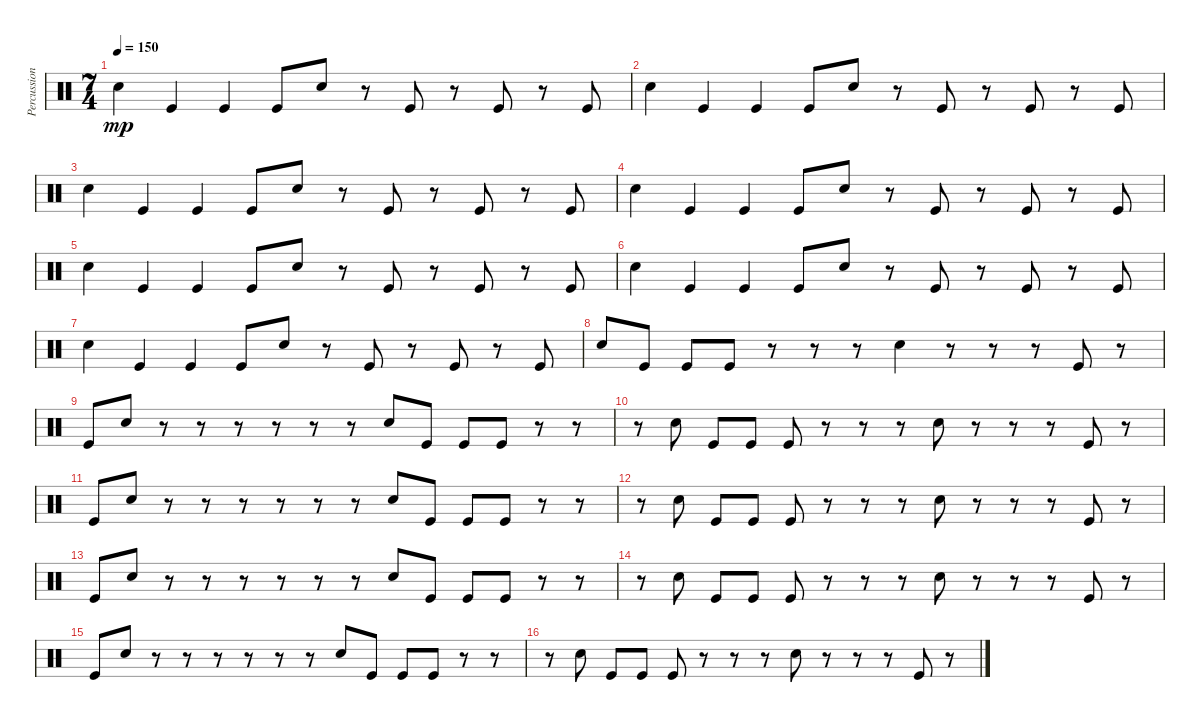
\track ("Percussion" "Percussion") {instrument percussion}
\staff {score}
\articulation defaults
\ts (7 4)
\tempo 150
\clef neutral
\ks c "Electric Snare (hit)".4{dy mp} "Kick (hit)".4 "Kick (hit)".4 "Kick (hit)".8 "Electric Snare (hit)".8
r.8 "Kick (hit)".8 r.8 "Kick (hit)".8 r.8 "Kick (hit)".8 |
"Electric Snare (hit)".4 "Kick (hit)".4 "Kick (hit)".4 "Kick (hit)".8 "Electric Snare (hit)".8 r.8 "Kick (hit)".8 r.8 "Kick (hit)".8 r.8 "Kick (hit)".8 |
"Electric Snare (hit)".4 "Kick (hit)".4 "Kick (hit)".4 "Kick (hit)".8 "Electric Snare (hit)".8 r.8 "Kick (hit)".8 r.8 "Kick (hit)".8 r.8 "Kick (hit)".8 |
"Electric Snare (hit)".4 "Kick (hit)".4 "Kick (hit)".4 "Kick (hit)".8 "Electric Snare (hit)".8 r.8 "Kick (hit)".8 r.8 "Kick (hit)".8 r.8 "Kick (hit)".8 |
"Electric Snare (hit)".4 "Kick (hit)".4 "Kick (hit)".4 "Kick (hit)".8 "Electric Snare (hit)".8 r.8 "Kick (hit)".8 r.8 "Kick (hit)".8 r.8 "Kick (hit)".8 |
"Electric Snare (hit)".4 "Kick (hit)".4 "Kick (hit)".4 "Kick (hit)".8 "Electric Snare (hit)".8 r.8 "Kick (hit)".8 r.8 "Kick (hit)".8 r.8 "Kick (hit)".8 |
"Electric Snare (hit)".4 "Kick (hit)".4 "Kick (hit)".4 "Kick (hit)".8 "Electric Snare (hit)".8 r.8 "Kick (hit)".8 r.8 "Kick (hit)".8 r.8 "Kick (hit)".8 |
"Electric Snare (hit)".8 "Kick (hit)".8 "Kick (hit)".8 "Kick (hit)".8 r.8 r.8 r.8 "Electric Snare (hit)".4 r.8 r.8 r.8 "Kick (hit)".8 r.8 |
"Kick (hit)".8 "Electric Snare (hit)".8 r.8 r.8 r.8 r.8 r.8 r.8 "Electric Snare (hit)".8 "Kick (hit)".8 "Kick (hit)".8 "Kick (hit)".8 r.8 r.8 |
r.8 "Electric Snare (hit)".8 "Kick (hit)".8 "Kick (hit)".8 "Kick (hit)".8 r.8 r.8 r.8 "Electric Snare (hit)".8 r.8 r.8 r.8 "Kick (hit)".8 r.8 |
"Kick (hit)".8 "Electric Snare (hit)".8 r.8 r.8 r.8 r.8 r.8 r.8 "Electric Snare (hit)".8 "Kick (hit)".8 "Kick (hit)".8 "Kick (hit)".8 r.8 r.8 |
r.8 "Electric Snare (hit)".8 "Kick (hit)".8 "Kick (hit)".8 "Kick (hit)".8 r.8 r.8 r.8 "Electric Snare (hit)".8 r.8 r.8 r.8 "Kick (hit)".8 r.8 |
"Kick (hit)".8 "Electric Snare (hit)".8 r.8 r.8 r.8 r.8 r.8 r.8 "Electric Snare (hit)".8 "Kick (hit)".8 "Kick (hit)".8 "Kick (hit)".8 r.8 r.8 |
r.8 "Electric Snare (hit)".8 "Kick (hit)".8 "Kick (hit)".8 "Kick (hit)".8 r.8 r.8 r.8 "Electric Snare (hit)".8 r.8 r.8 r.8 "Kick (hit)".8 r.8 |
"Kick (hit)".8 "Electric Snare (hit)".8 r.8 r.8 r.8 r.8 r.8 r.8 "Electric Snare (hit)".8 "Kick (hit)".8 "Kick (hit)".8 "Kick (hit)".8 r.8 r.8 |
r.8 "Electric Snare (hit)".8 "Kick (hit)".8 "Kick (hit)".8 "Kick (hit)".8 r.8 r.8 r.8 "Electric Snare (hit)".8 r.8 r.8 r.8 "Kick (hit)".8 r.8
